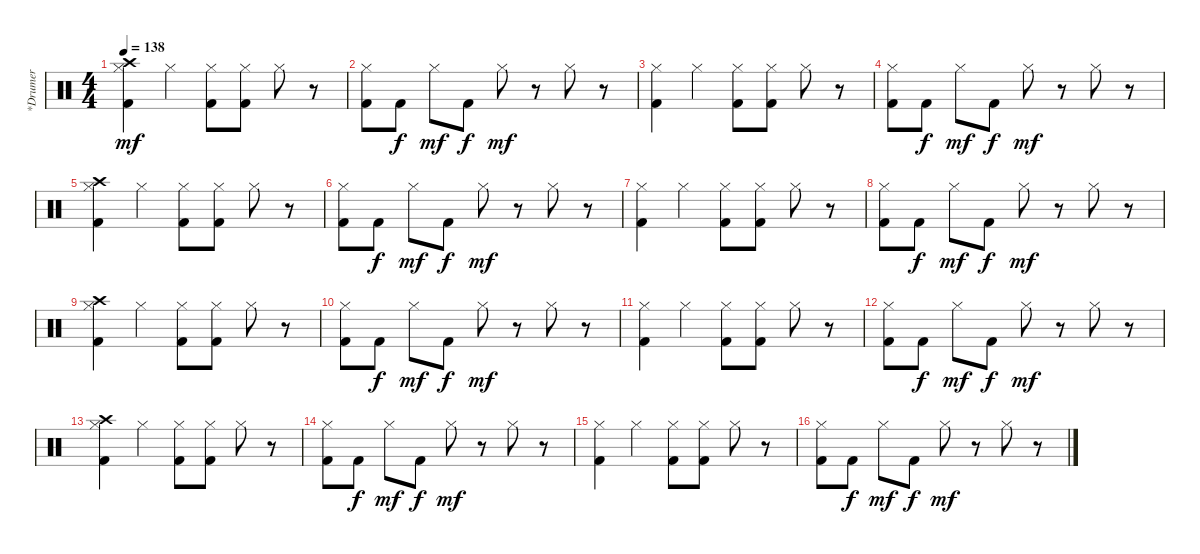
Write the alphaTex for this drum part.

\track ("*Drumer" "*Drumer") {instrument percussion}
\staff {score}
\articulation defaults
\ts (4 4)
\tempo 138
\clef neutral
\ks c
("Crash high (hit)" "Hi-Hat (closed)" "Kick (hit) 2").4{dy mf} "Hi-Hat (closed)".4 ("Hi-Hat (closed)" "Kick (hit) 2").8 ("Hi-Hat (closed)" "Kick (hit) 2").8 "Hi-Hat (closed)".8 r.8 |
("Hi-Hat (closed)" "Kick (hit) 2").8 "Kick (hit) 2".8{dy f} "Hi-Hat (closed)".8{dy mf} "Kick (hit) 2".8{dy f} "Hi-Hat (closed)".8{dy mf} r.8 "Hi-Hat (closed)".8 r.8 |
("Hi-Hat (closed)" "Kick (hit) 2").4 "Hi-Hat (closed)".4 ("Hi-Hat (closed)" "Kick (hit) 2").8 ("Hi-Hat (closed)" "Kick (hit) 2").8 "Hi-Hat (closed)".8 r.8 |
("Hi-Hat (closed)" "Kick (hit) 2").8 "Kick (hit) 2".8{dy f} "Hi-Hat (closed)".8{dy mf} "Kick (hit) 2".8{dy f} "Hi-Hat (closed)".8{dy mf} r.8 "Hi-Hat (closed)".8 r.8 |
("Crash high (hit)" "Hi-Hat (closed)" "Kick (hit) 2").4 "Hi-Hat (closed)".4 ("Hi-Hat (closed)" "Kick (hit) 2").8 ("Hi-Hat (closed)" "Kick (hit) 2").8 "Hi-Hat (closed)".8 r.8 |
("Hi-Hat (closed)" "Kick (hit) 2").8 "Kick (hit) 2".8{dy f} "Hi-Hat (closed)".8{dy mf} "Kick (hit) 2".8{dy f} "Hi-Hat (closed)".8{dy mf} r.8 "Hi-Hat (closed)".8 r.8 |
("Hi-Hat (closed)" "Kick (hit) 2").4 "Hi-Hat (closed)".4 ("Hi-Hat (closed)" "Kick (hit) 2").8 ("Hi-Hat (closed)" "Kick (hit) 2").8 "Hi-Hat (closed)".8 r.8 |
("Hi-Hat (closed)" "Kick (hit) 2").8 "Kick (hit) 2".8{dy f} "Hi-Hat (closed)".8{dy mf} "Kick (hit) 2".8{dy f} "Hi-Hat (closed)".8{dy mf} r.8 "Hi-Hat (closed)".8 r.8 |
("Crash high (hit)" "Hi-Hat (closed)" "Kick (hit) 2").4 "Hi-Hat (closed)".4 ("Hi-Hat (closed)" "Kick (hit) 2").8 ("Hi-Hat (closed)" "Kick (hit) 2").8 "Hi-Hat (closed)".8 r.8 |
("Hi-Hat (closed)" "Kick (hit) 2").8 "Kick (hit) 2".8{dy f} "Hi-Hat (closed)".8{dy mf} "Kick (hit) 2".8{dy f} "Hi-Hat (closed)".8{dy mf} r.8 "Hi-Hat (closed)".8 r.8 |
("Hi-Hat (closed)" "Kick (hit) 2").4 "Hi-Hat (closed)".4 ("Hi-Hat (closed)" "Kick (hit) 2").8 ("Hi-Hat (closed)" "Kick (hit) 2").8 "Hi-Hat (closed)".8 r.8 |
("Hi-Hat (closed)" "Kick (hit) 2").8 "Kick (hit) 2".8{dy f} "Hi-Hat (closed)".8{dy mf} "Kick (hit) 2".8{dy f} "Hi-Hat (closed)".8{dy mf} r.8 "Hi-Hat (closed)".8 r.8 |
("Crash high (hit)" "Hi-Hat (closed)" "Kick (hit) 2").4 "Hi-Hat (closed)".4 ("Hi-Hat (closed)" "Kick (hit) 2").8 ("Hi-Hat (closed)" "Kick (hit) 2").8 "Hi-Hat (closed)".8 r.8 |
("Hi-Hat (closed)" "Kick (hit) 2").8 "Kick (hit) 2".8{dy f} "Hi-Hat (closed)".8{dy mf} "Kick (hit) 2".8{dy f} "Hi-Hat (closed)".8{dy mf} r.8 "Hi-Hat (closed)".8 r.8 |
("Hi-Hat (closed)" "Kick (hit) 2").4 "Hi-Hat (closed)".4 ("Hi-Hat (closed)" "Kick (hit) 2").8 ("Hi-Hat (closed)" "Kick (hit) 2").8 "Hi-Hat (closed)".8 r.8 |
("Hi-Hat (closed)" "Kick (hit) 2").8 "Kick (hit) 2".8{dy f} "Hi-Hat (closed)".8{dy mf} "Kick (hit) 2".8{dy f} "Hi-Hat (closed)".8{dy mf} r.8 "Hi-Hat (closed)".8 r.8
